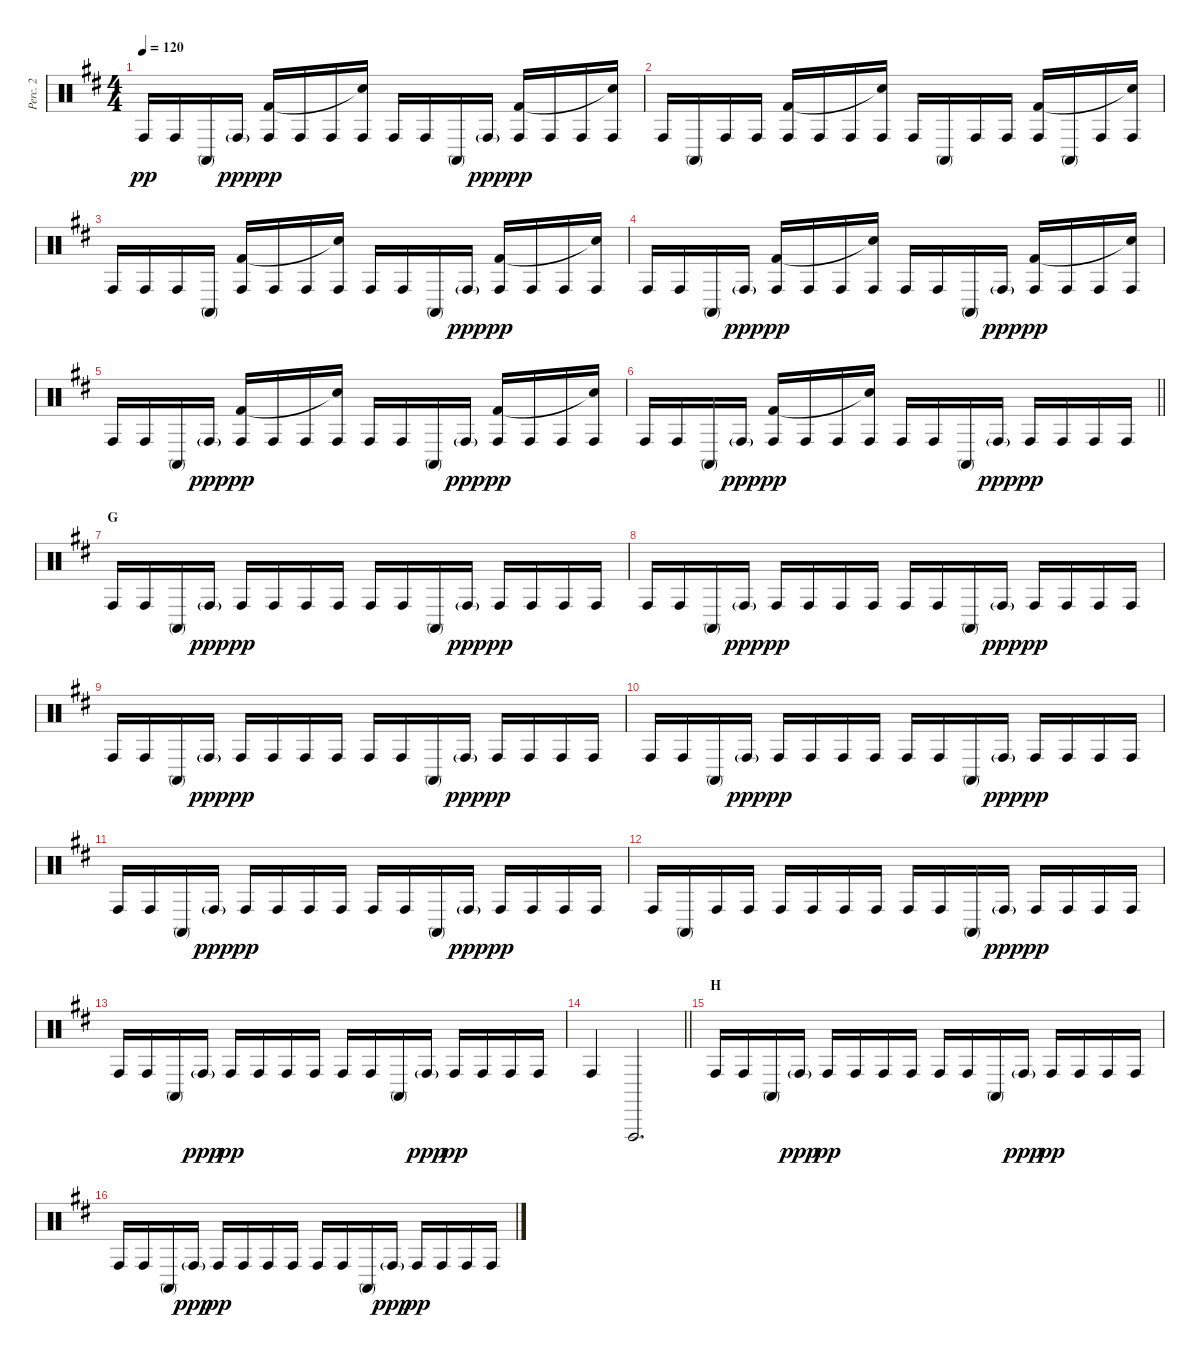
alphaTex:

\track ("Perc. 2" "Perc. 2") {instrument percussion}
\staff {score}
\articulation defaults
\ts (4 4)
\tempo 120
\clef neutral
\ks d "Conga high (hit)".16{dy pp} "Conga high (hit)".16 "Conga high (mute)".16 "Conga high (hit)"{g}.16{dy ppp}
("Conga high (hit)" "Kick (hit) 2").16{dy pp} "Conga high (hit)".16 "Conga high (hit)".16 ("Conga high (hit)" "Snare (hit)"{t}).16 "Conga high (hit)".16 "Conga high (hit)".16 "Conga high (mute)".16 "Conga high (hit)"{g}.16{dy ppp} ("Conga high (hit)" "Kick (hit) 2").16{dy pp} "Conga high (hit)".16 "Conga high (hit)".16 ("Conga high (hit)" "Snare (hit)"{t}).16 |
"Conga high (hit)".16 "Conga high (mute)".16 "Conga high (hit)".16 "Conga high (hit)".16 ("Conga high (hit)" "Kick (hit) 2").16 "Conga high (hit)".16 "Conga high (hit)".16 ("Conga high (hit)" "Snare (hit)"{t}).16 "Conga high (hit)".16 "Conga high (mute)".16 "Conga high (hit)".16 "Conga high (hit)".16 ("Conga high (hit)" "Kick (hit) 2").16 "Conga high (mute)".16 "Conga high (hit)".16 ("Conga high (hit)" "Snare (hit)"{t}).16 |
"Conga high (hit)".16 "Conga high (hit)".16 "Conga high (hit)".16 "Conga high (mute)".16 ("Conga high (hit)" "Kick (hit) 2").16 "Conga high (hit)".16 "Conga high (hit)".16 ("Conga high (hit)" "Snare (hit)"{t}).16 "Conga high (hit)".16 "Conga high (hit)".16 "Conga high (mute)".16 "Conga high (hit)"{g}.16{dy ppp} ("Conga high (hit)" "Kick (hit) 2").16{dy pp} "Conga high (hit)".16 "Conga high (hit)".16 ("Conga high (hit)" "Snare (hit)"{t}).16 |
"Conga high (hit)".16 "Conga high (hit)".16 "Conga high (mute)".16 "Conga high (hit)"{g}.16{dy ppp} ("Conga high (hit)" "Kick (hit) 2").16{dy pp} "Conga high (hit)".16 "Conga high (hit)".16 ("Conga high (hit)" "Snare (hit)"{t}).16 "Conga high (hit)".16 "Conga high (hit)".16 "Conga high (mute)".16 "Conga high (hit)"{g}.16{dy ppp} ("Conga high (hit)" "Kick (hit) 2").16{dy pp} "Conga high (hit)".16 "Conga high (hit)".16 ("Conga high (hit)" "Snare (hit)"{t}).16 |
"Conga high (hit)".16 "Conga high (hit)".16 "Conga high (mute)".16 "Conga high (hit)"{g}.16{dy ppp} ("Conga high (hit)" "Kick (hit) 2").16{dy pp} "Conga high (hit)".16 "Conga high (hit)".16 ("Conga high (hit)" "Snare (hit)"{t}).16 "Conga high (hit)".16 "Conga high (hit)".16 "Conga high (mute)".16 "Conga high (hit)"{g}.16{dy ppp} ("Conga high (hit)" "Kick (hit) 2").16{dy pp} "Conga high (hit)".16 "Conga high (hit)".16 ("Conga high (hit)" "Snare (hit)"{t}).16 |
\barLineRight lightlight "Conga high (hit)".16 "Conga high (hit)".16 "Conga high (mute)".16 "Conga high (hit)"{g}.16{dy ppp}
("Conga high (hit)" "Kick (hit) 2").16{dy pp} "Conga high (hit)".16 "Conga high (hit)".16 ("Conga high (hit)" "Snare (hit)"{t}).16 "Conga high (hit)".16 "Conga high (hit)".16 "Conga high (mute)".16 "Conga high (hit)"{g}.16{dy ppp} "Conga high (hit)".16{dy pp} "Conga high (hit)".16 "Conga high (hit)".16 "Conga high (hit)".16 |
\section ("" "G")
"Conga high (hit)".16 "Conga high (hit)".16 "Conga high (mute)".16 "Conga high (hit)"{g}.16{dy ppp} "Conga high (hit)".16{dy pp} "Conga high (hit)".16 "Conga high (hit)".16 "Conga high (hit)".16 "Conga high (hit)".16 "Conga high (hit)".16 "Conga high (mute)".16 "Conga high (hit)"{g}.16{dy ppp} "Conga high (hit)".16{dy pp} "Conga high (hit)".16 "Conga high (hit)".16 "Conga high (hit)".16 |
"Conga high (hit)".16 "Conga high (hit)".16 "Conga high (mute)".16 "Conga high (hit)"{g}.16{dy ppp} "Conga high (hit)".16{dy pp} "Conga high (hit)".16 "Conga high (hit)".16 "Conga high (hit)".16 "Conga high (hit)".16 "Conga high (hit)".16 "Conga high (mute)".16 "Conga high (hit)"{g}.16{dy ppp} "Conga high (hit)".16{dy pp} "Conga high (hit)".16 "Conga high (hit)".16 "Conga high (hit)".16 |
"Conga high (hit)".16 "Conga high (hit)".16 "Conga high (mute)".16 "Conga high (hit)"{g}.16{dy ppp} "Conga high (hit)".16{dy pp} "Conga high (hit)".16 "Conga high (hit)".16 "Conga high (hit)".16 "Conga high (hit)".16 "Conga high (hit)".16 "Conga high (mute)".16 "Conga high (hit)"{g}.16{dy ppp} "Conga high (hit)".16{dy pp} "Conga high (hit)".16 "Conga high (hit)".16 "Conga high (hit)".16 |
"Conga high (hit)".16 "Conga high (hit)".16 "Conga high (mute)".16 "Conga high (hit)"{g}.16{dy ppp} "Conga high (hit)".16{dy pp} "Conga high (hit)".16 "Conga high (hit)".16 "Conga high (hit)".16 "Conga high (hit)".16 "Conga high (hit)".16 "Conga high (mute)".16 "Conga high (hit)"{g}.16{dy ppp} "Conga high (hit)".16{dy pp} "Conga high (hit)".16 "Conga high (hit)".16 "Conga high (hit)".16 |
"Conga high (hit)".16 "Conga high (hit)".16 "Conga high (mute)".16 "Conga high (hit)"{g}.16{dy ppp} "Conga high (hit)".16{dy pp} "Conga high (hit)".16 "Conga high (hit)".16 "Conga high (hit)".16 "Conga high (hit)".16 "Conga high (hit)".16 "Conga high (mute)".16 "Conga high (hit)"{g}.16{dy ppp} "Conga high (hit)".16{dy pp} "Conga high (hit)".16 "Conga high (hit)".16 "Conga high (hit)".16 |
"Conga high (hit)".16 "Conga high (mute)".16 "Conga high (hit)".16 "Conga high (hit)".16 "Conga high (hit)".16 "Conga high (hit)".16 "Conga high (hit)".16 "Conga high (hit)".16 "Conga high (hit)".16 "Conga high (hit)".16 "Conga high (mute)".16 "Conga high (hit)"{g}.16{dy ppp} "Conga high (hit)".16{dy pp} "Conga high (hit)".16 "Conga high (hit)".16 "Conga high (hit)".16 |
"Conga high (hit)".16 "Conga high (hit)".16 "Conga high (mute)".16 "Conga high (hit)"{g}.16{dy ppp} "Conga high (hit)".16{dy pp} "Conga high (hit)".16 "Conga high (hit)".16 "Conga high (hit)".16 "Conga high (hit)".16 "Conga high (hit)".16 "Conga high (mute)".16 "Conga high (hit)"{g}.16{dy ppp} "Conga high (hit)".16{dy pp} "Conga high (hit)".16 "Conga high (hit)".16 "Conga high (hit)".16 |
\barLineRight lightlight "Conga high (hit)".4 "Vibraslap (hit)".2{d}
|
\section ("" "H")
"Conga high (hit)".16 "Conga high (hit)".16 "Conga high (mute)".16 "Conga high (hit)"{g}.16{dy ppp} "Conga high (hit)".16{dy pp} "Conga high (hit)".16 "Conga high (hit)".16 "Conga high (hit)".16 "Conga high (hit)".16 "Conga high (hit)".16 "Conga high (mute)".16 "Conga high (hit)"{g}.16{dy ppp} "Conga high (hit)".16{dy pp} "Conga high (hit)".16 "Conga high (hit)".16 "Conga high (hit)".16 |
"Conga high (hit)".16 "Conga high (hit)".16 "Conga high (mute)".16 "Conga high (hit)"{g}.16{dy ppp} "Conga high (hit)".16{dy pp} "Conga high (hit)".16 "Conga high (hit)".16 "Conga high (hit)".16 "Conga high (hit)".16 "Conga high (hit)".16 "Conga high (mute)".16 "Conga high (hit)"{g}.16{dy ppp} "Conga high (hit)".16{dy pp} "Conga high (hit)".16 "Conga high (hit)".16 "Conga high (hit)".16
